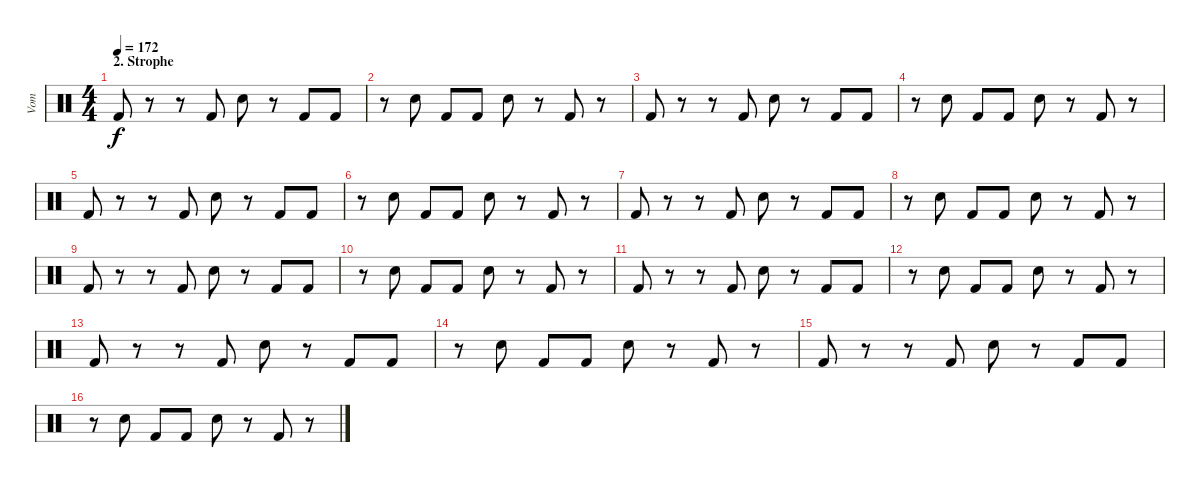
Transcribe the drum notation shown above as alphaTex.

\track ("Vom" "Vom") {instrument percussion}
\staff {score}
\articulation defaults
\ts (4 4)
\section ("" "2. Strophe")
\tempo 172
\clef neutral
\ks c "Kick (hit) 2".8{dy f}
r.8 r.8 "Kick (hit) 2".8 "Snare (hit) 2".8 r.8 "Kick (hit) 2".8 "Kick (hit) 2".8 |
r.8 "Snare (hit) 2".8 "Kick (hit) 2".8 "Kick (hit) 2".8 "Snare (hit) 2".8 r.8 "Kick (hit) 2".8 r.8 |
"Kick (hit) 2".8 r.8 r.8 "Kick (hit) 2".8 "Snare (hit) 2".8 r.8 "Kick (hit) 2".8 "Kick (hit) 2".8 |
r.8 "Snare (hit) 2".8 "Kick (hit) 2".8 "Kick (hit) 2".8 "Snare (hit) 2".8 r.8 "Kick (hit) 2".8 r.8 |
"Kick (hit) 2".8 r.8 r.8 "Kick (hit) 2".8 "Snare (hit) 2".8 r.8 "Kick (hit) 2".8 "Kick (hit) 2".8 |
r.8 "Snare (hit) 2".8 "Kick (hit) 2".8 "Kick (hit) 2".8 "Snare (hit) 2".8 r.8 "Kick (hit) 2".8 r.8 |
"Kick (hit) 2".8 r.8 r.8 "Kick (hit) 2".8 "Snare (hit) 2".8 r.8 "Kick (hit) 2".8 "Kick (hit) 2".8 |
r.8 "Snare (hit) 2".8 "Kick (hit) 2".8 "Kick (hit) 2".8 "Snare (hit) 2".8 r.8 "Kick (hit) 2".8 r.8 |
"Kick (hit) 2".8 r.8 r.8 "Kick (hit) 2".8 "Snare (hit) 2".8 r.8 "Kick (hit) 2".8 "Kick (hit) 2".8 |
r.8 "Snare (hit) 2".8 "Kick (hit) 2".8 "Kick (hit) 2".8 "Snare (hit) 2".8 r.8 "Kick (hit) 2".8 r.8 |
"Kick (hit) 2".8 r.8 r.8 "Kick (hit) 2".8 "Snare (hit) 2".8 r.8 "Kick (hit) 2".8 "Kick (hit) 2".8 |
r.8 "Snare (hit) 2".8 "Kick (hit) 2".8 "Kick (hit) 2".8 "Snare (hit) 2".8 r.8 "Kick (hit) 2".8 r.8 |
"Kick (hit) 2".8 r.8 r.8 "Kick (hit) 2".8 "Snare (hit) 2".8 r.8 "Kick (hit) 2".8 "Kick (hit) 2".8 |
r.8 "Snare (hit) 2".8 "Kick (hit) 2".8 "Kick (hit) 2".8 "Snare (hit) 2".8 r.8 "Kick (hit) 2".8 r.8 |
"Kick (hit) 2".8 r.8 r.8 "Kick (hit) 2".8 "Snare (hit) 2".8 r.8 "Kick (hit) 2".8 "Kick (hit) 2".8 |
r.8 "Snare (hit) 2".8 "Kick (hit) 2".8 "Kick (hit) 2".8 "Snare (hit) 2".8 r.8 "Kick (hit) 2".8 r.8
